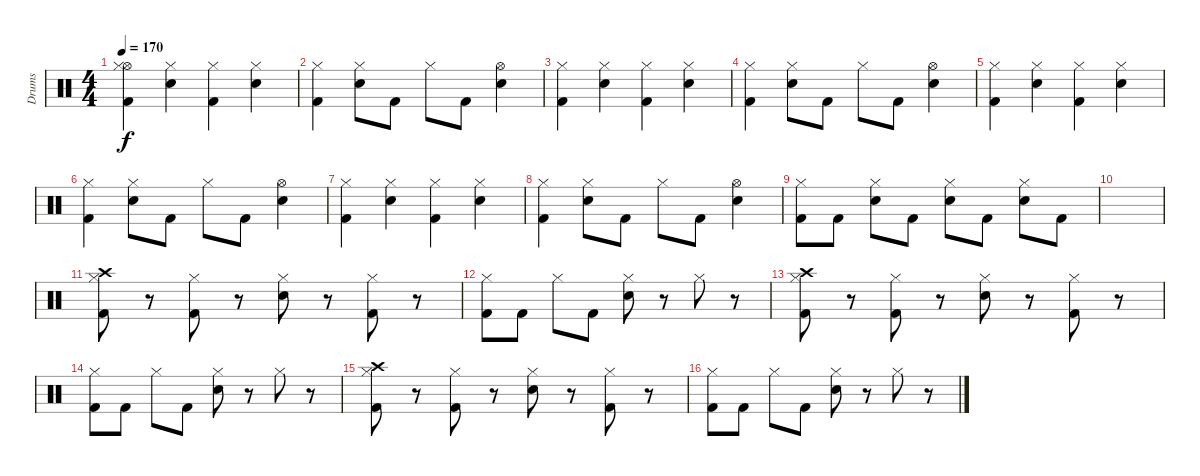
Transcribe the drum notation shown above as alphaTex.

\track ("Drums" "Drums") {instrument percussion}
\staff {score}
\articulation defaults
\ts (4 4)
\tempo 170
\clef neutral
\ks c
("Hi-Hat (open)" "Hi-Hat (closed)" "Kick (hit) 2").4{dy f} ("Hi-Hat (closed)" "Snare (hit) 2").4 ("Hi-Hat (closed)" "Kick (hit) 2").4 ("Hi-Hat (closed)" "Snare (hit) 2").4 |
("Hi-Hat (closed)" "Kick (hit) 2").4 ("Hi-Hat (closed)" "Snare (hit) 2").8 "Kick (hit) 2".8 "Hi-Hat (closed)".8 "Kick (hit) 2".8 ("Hi-Hat (open)" "Snare (hit) 2").4 |
("Hi-Hat (closed)" "Kick (hit) 2").4 ("Hi-Hat (closed)" "Snare (hit) 2").4 ("Hi-Hat (closed)" "Kick (hit) 2").4 ("Hi-Hat (closed)" "Snare (hit) 2").4 |
("Hi-Hat (closed)" "Kick (hit) 2").4 ("Hi-Hat (closed)" "Snare (hit) 2").8 "Kick (hit) 2".8 "Hi-Hat (closed)".8 "Kick (hit) 2".8 ("Hi-Hat (open)" "Snare (hit) 2").4 |
("Hi-Hat (closed)" "Kick (hit) 2").4 ("Hi-Hat (closed)" "Snare (hit) 2").4 ("Hi-Hat (closed)" "Kick (hit) 2").4 ("Hi-Hat (closed)" "Snare (hit) 2").4 |
("Hi-Hat (closed)" "Kick (hit) 2").4 ("Hi-Hat (closed)" "Snare (hit) 2").8 "Kick (hit) 2".8 "Hi-Hat (closed)".8 "Kick (hit) 2".8 ("Hi-Hat (open)" "Snare (hit) 2").4 |
("Hi-Hat (closed)" "Kick (hit) 2").4 ("Hi-Hat (closed)" "Snare (hit) 2").4 ("Hi-Hat (closed)" "Kick (hit) 2").4 ("Hi-Hat (closed)" "Snare (hit) 2").4 |
("Hi-Hat (closed)" "Kick (hit) 2").4 ("Hi-Hat (closed)" "Snare (hit) 2").8 "Kick (hit) 2".8 "Hi-Hat (closed)".8 "Kick (hit) 2".8 ("Hi-Hat (open)" "Snare (hit) 2").4 |
("Hi-Hat (closed)" "Kick (hit) 2").8 "Kick (hit) 2".8 ("Hi-Hat (closed)" "Snare (hit) 2").8 "Kick (hit) 2".8 ("Hi-Hat (closed)" "Snare (hit) 2").8 "Kick (hit) 2".8 ("Hi-Hat (closed)" "Snare (hit) 2").8 "Kick (hit) 2".8 |
|
("Crash high (hit)" "Hi-Hat (closed)" "Kick (hit) 2").8 r.8 ("Hi-Hat (closed)" "Kick (hit) 2").8 r.8 ("Hi-Hat (closed)" "Snare (hit) 2").8 r.8 ("Hi-Hat (closed)" "Kick (hit) 2").8 r.8 |
("Hi-Hat (closed)" "Kick (hit) 2").8 "Kick (hit) 2".8 "Hi-Hat (closed)".8 "Kick (hit) 2".8 ("Hi-Hat (closed)" "Snare (hit) 2").8 r.8 "Hi-Hat (closed)".8 r.8 |
("Crash high (hit)" "Hi-Hat (closed)" "Kick (hit) 2").8 r.8 ("Hi-Hat (closed)" "Kick (hit) 2").8 r.8 ("Hi-Hat (closed)" "Snare (hit) 2").8 r.8 ("Hi-Hat (closed)" "Kick (hit) 2").8 r.8 |
("Hi-Hat (closed)" "Kick (hit) 2").8 "Kick (hit) 2".8 "Hi-Hat (closed)".8 "Kick (hit) 2".8 ("Hi-Hat (closed)" "Snare (hit) 2").8 r.8 "Hi-Hat (closed)".8 r.8 |
("Crash high (hit)" "Hi-Hat (closed)" "Kick (hit) 2").8 r.8 ("Hi-Hat (closed)" "Kick (hit) 2").8 r.8 ("Hi-Hat (closed)" "Snare (hit) 2").8 r.8 ("Hi-Hat (closed)" "Kick (hit) 2").8 r.8 |
("Hi-Hat (closed)" "Kick (hit) 2").8 "Kick (hit) 2".8 "Hi-Hat (closed)".8 "Kick (hit) 2".8 ("Hi-Hat (closed)" "Snare (hit) 2").8 r.8 "Hi-Hat (closed)".8 r.8
